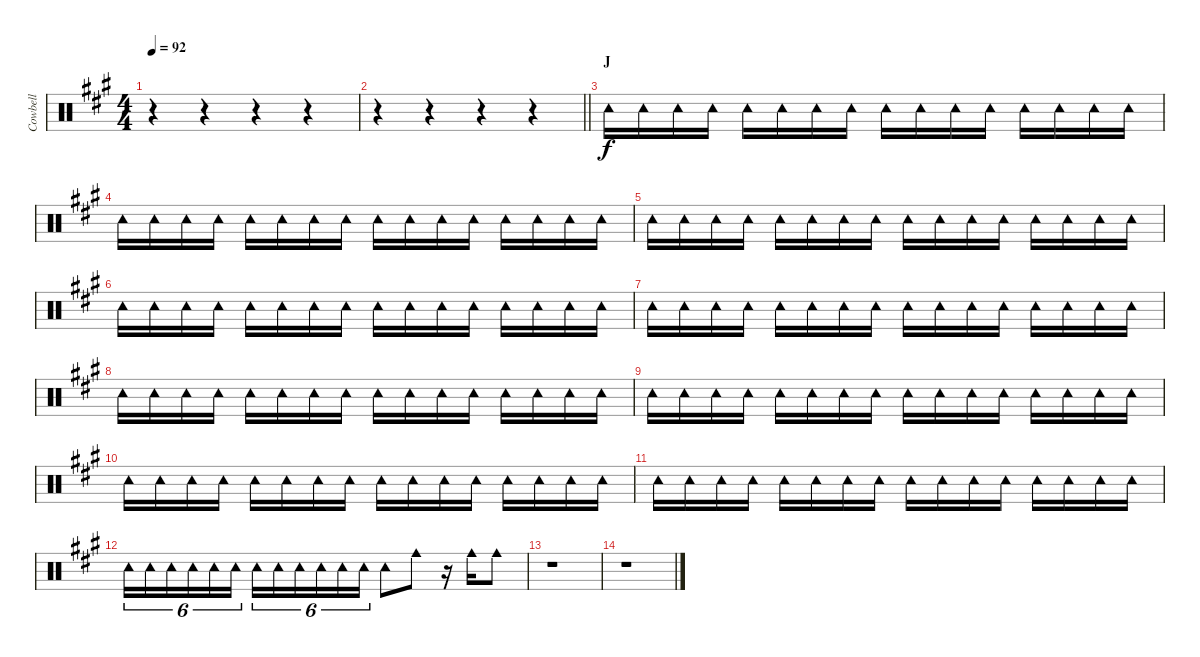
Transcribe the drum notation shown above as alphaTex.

\track ("Cowbell" "Cowbell") {instrument percussion}
\staff {score}
\articulation defaults
\ts (4 4)
\tempo 92
\clef neutral
\ks a
r.4{dy f} r.4 r.4 r.4 |
\barLineRight lightlight
r.4 r.4 r.4 r.4 |
\section ("" "J")
"Tambourine (hit)".16 "Tambourine (hit)".16 "Tambourine (hit)".16 "Tambourine (hit)".16 "Tambourine (hit)".16 "Tambourine (hit)".16 "Tambourine (hit)".16 "Tambourine (hit)".16 "Tambourine (hit)".16 "Tambourine (hit)".16 "Tambourine (hit)".16 "Tambourine (hit)".16 "Tambourine (hit)".16 "Tambourine (hit)".16 "Tambourine (hit)".16 "Tambourine (hit)".16 |
"Tambourine (hit)".16 "Tambourine (hit)".16 "Tambourine (hit)".16 "Tambourine (hit)".16 "Tambourine (hit)".16 "Tambourine (hit)".16 "Tambourine (hit)".16 "Tambourine (hit)".16 "Tambourine (hit)".16 "Tambourine (hit)".16 "Tambourine (hit)".16 "Tambourine (hit)".16 "Tambourine (hit)".16 "Tambourine (hit)".16 "Tambourine (hit)".16 "Tambourine (hit)".16 |
"Tambourine (hit)".16 "Tambourine (hit)".16 "Tambourine (hit)".16 "Tambourine (hit)".16 "Tambourine (hit)".16 "Tambourine (hit)".16 "Tambourine (hit)".16 "Tambourine (hit)".16 "Tambourine (hit)".16 "Tambourine (hit)".16 "Tambourine (hit)".16 "Tambourine (hit)".16 "Tambourine (hit)".16 "Tambourine (hit)".16 "Tambourine (hit)".16 "Tambourine (hit)".16 |
"Tambourine (hit)".16 "Tambourine (hit)".16 "Tambourine (hit)".16 "Tambourine (hit)".16 "Tambourine (hit)".16 "Tambourine (hit)".16 "Tambourine (hit)".16 "Tambourine (hit)".16 "Tambourine (hit)".16 "Tambourine (hit)".16 "Tambourine (hit)".16 "Tambourine (hit)".16 "Tambourine (hit)".16 "Tambourine (hit)".16 "Tambourine (hit)".16 "Tambourine (hit)".16 |
"Tambourine (hit)".16 "Tambourine (hit)".16 "Tambourine (hit)".16 "Tambourine (hit)".16 "Tambourine (hit)".16 "Tambourine (hit)".16 "Tambourine (hit)".16 "Tambourine (hit)".16 "Tambourine (hit)".16 "Tambourine (hit)".16 "Tambourine (hit)".16 "Tambourine (hit)".16 "Tambourine (hit)".16 "Tambourine (hit)".16 "Tambourine (hit)".16 "Tambourine (hit)".16 |
"Tambourine (hit)".16 "Tambourine (hit)".16 "Tambourine (hit)".16 "Tambourine (hit)".16 "Tambourine (hit)".16 "Tambourine (hit)".16 "Tambourine (hit)".16 "Tambourine (hit)".16 "Tambourine (hit)".16 "Tambourine (hit)".16 "Tambourine (hit)".16 "Tambourine (hit)".16 "Tambourine (hit)".16 "Tambourine (hit)".16 "Tambourine (hit)".16 "Tambourine (hit)".16 |
"Tambourine (hit)".16 "Tambourine (hit)".16 "Tambourine (hit)".16 "Tambourine (hit)".16 "Tambourine (hit)".16 "Tambourine (hit)".16 "Tambourine (hit)".16 "Tambourine (hit)".16 "Tambourine (hit)".16 "Tambourine (hit)".16 "Tambourine (hit)".16 "Tambourine (hit)".16 "Tambourine (hit)".16 "Tambourine (hit)".16 "Tambourine (hit)".16 "Tambourine (hit)".16 |
"Tambourine (hit)".16 "Tambourine (hit)".16 "Tambourine (hit)".16 "Tambourine (hit)".16 "Tambourine (hit)".16 "Tambourine (hit)".16 "Tambourine (hit)".16 "Tambourine (hit)".16 "Tambourine (hit)".16 "Tambourine (hit)".16 "Tambourine (hit)".16 "Tambourine (hit)".16 "Tambourine (hit)".16 "Tambourine (hit)".16 "Tambourine (hit)".16 "Tambourine (hit)".16 |
"Tambourine (hit)".16 "Tambourine (hit)".16 "Tambourine (hit)".16 "Tambourine (hit)".16 "Tambourine (hit)".16 "Tambourine (hit)".16 "Tambourine (hit)".16 "Tambourine (hit)".16 "Tambourine (hit)".16 "Tambourine (hit)".16 "Tambourine (hit)".16 "Tambourine (hit)".16 "Tambourine (hit)".16 "Tambourine (hit)".16 "Tambourine (hit)".16 "Tambourine (hit)".16 |
"Tambourine (hit)".16{tu (6 4)} "Tambourine (hit)".16{tu (6 4)} "Tambourine (hit)".16{tu (6 4)} "Tambourine (hit)".16{tu (6 4)} "Tambourine (hit)".16{tu (6 4)} "Tambourine (hit)".16{tu (6 4)} "Tambourine (hit)".16{tu (6 4)} "Tambourine (hit)".16{tu (6 4)} "Tambourine (hit)".16{tu (6 4)} "Tambourine (hit)".16{tu (6 4)} "Tambourine (hit)".16{tu (6 4)} "Tambourine (hit)".16{tu (6 4)} "Tambourine (hit)".8 "Cowbell medium (hit)".8 r.16 "Cowbell medium (hit)".16 "Cowbell medium (hit)".8 |
r.1 |
r.1
